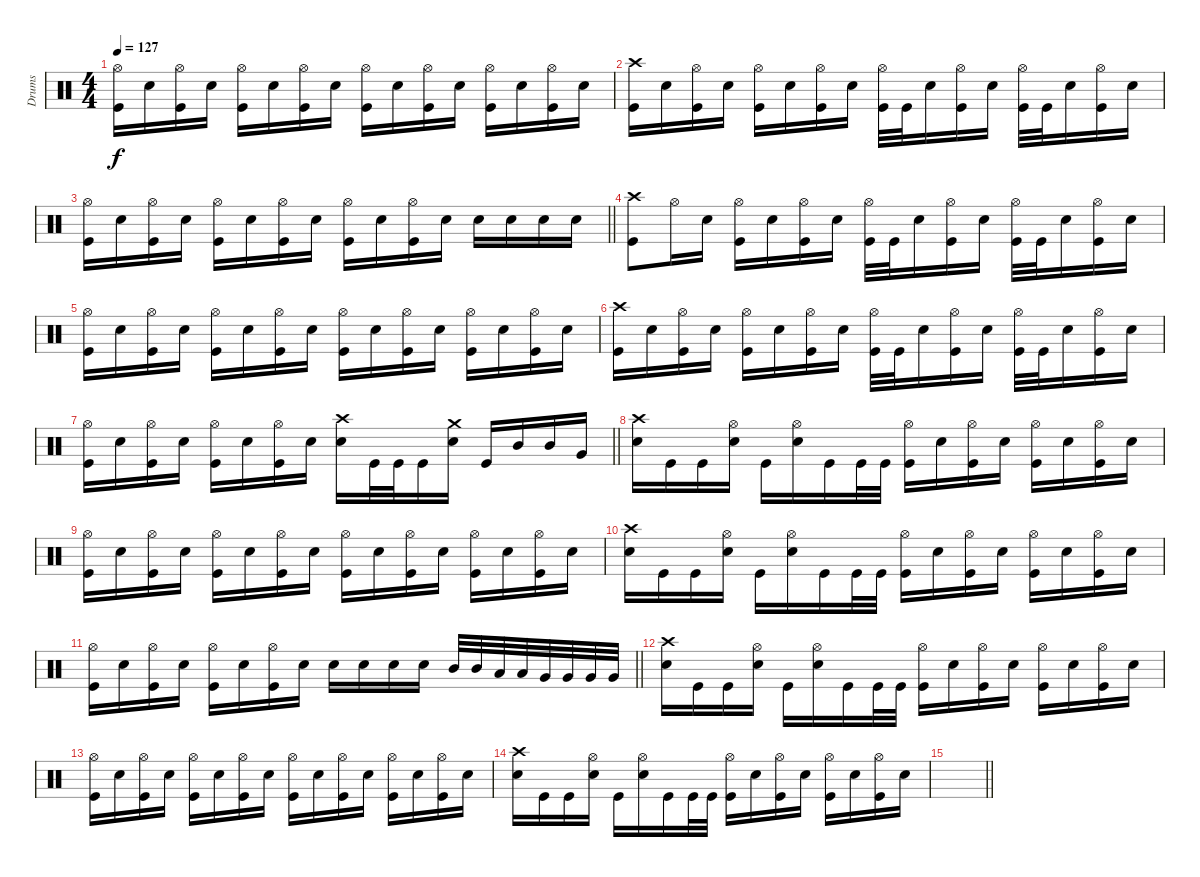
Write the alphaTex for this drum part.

\track ("Drums" "Drums") {instrument percussion}
\staff
\articulation defaults
\ts (4 4)
\tempo 127
\clef neutral
\ks c
("Hi-Hat (open)" "Kick (hit)").16{dy f} "Electric Snare (hit)".16 ("Hi-Hat (open)" "Kick (hit)").16 "Electric Snare (hit)".16 ("Hi-Hat (open)" "Kick (hit)").16 "Electric Snare (hit)".16 ("Hi-Hat (open)" "Kick (hit)").16 "Electric Snare (hit)".16 ("Hi-Hat (open)" "Kick (hit)").16 "Electric Snare (hit)".16 ("Hi-Hat (open)" "Kick (hit)").16 "Electric Snare (hit)".16 ("Hi-Hat (open)" "Kick (hit)").16 "Electric Snare (hit)".16 ("Hi-Hat (open)" "Kick (hit)").16 "Electric Snare (hit)".16 |
("Crash high (hit)" "Kick (hit)").16 "Electric Snare (hit)".16 ("Hi-Hat (open)" "Kick (hit)").16 "Electric Snare (hit)".16 ("Hi-Hat (open)" "Kick (hit)").16 "Electric Snare (hit)".16 ("Hi-Hat (open)" "Kick (hit)").16 "Electric Snare (hit)".16 ("Hi-Hat (open)" "Kick (hit)").32 "Kick (hit)".32 "Electric Snare (hit)".16 ("Hi-Hat (open)" "Kick (hit)").16 "Electric Snare (hit)".16 ("Hi-Hat (open)" "Kick (hit)").32 "Kick (hit)".32 "Electric Snare (hit)".16 ("Hi-Hat (open)" "Kick (hit)").16 "Electric Snare (hit)".16 |
\barLineRight lightlight
("Hi-Hat (open)" "Kick (hit)").16 "Electric Snare (hit)".16 ("Hi-Hat (open)" "Kick (hit)").16 "Electric Snare (hit)".16 ("Hi-Hat (open)" "Kick (hit)").16 "Electric Snare (hit)".16 ("Hi-Hat (open)" "Kick (hit)").16 "Electric Snare (hit)".16 ("Hi-Hat (open)" "Kick (hit)").16 "Electric Snare (hit)".16 ("Hi-Hat (open)" "Kick (hit)").16 "Electric Snare (hit)".16 "Electric Snare (hit)".16 "Electric Snare (hit)".16 "Electric Snare (hit)".16 "Electric Snare (hit)".16 |
("Crash high (hit)" "Kick (hit)").8 "Hi-Hat (open)".16 "Electric Snare (hit)".16 ("Hi-Hat (open)" "Kick (hit)").16 "Electric Snare (hit)".16 ("Hi-Hat (open)" "Kick (hit)").16 "Electric Snare (hit)".16 ("Hi-Hat (open)" "Kick (hit)").32 "Kick (hit)".32 "Electric Snare (hit)".16 ("Hi-Hat (open)" "Kick (hit)").16 "Electric Snare (hit)".16 ("Hi-Hat (open)" "Kick (hit)").32 "Kick (hit)".32 "Electric Snare (hit)".16 ("Hi-Hat (open)" "Kick (hit)").16 "Electric Snare (hit)".16 |
("Hi-Hat (open)" "Kick (hit)").16 "Electric Snare (hit)".16 ("Hi-Hat (open)" "Kick (hit)").16 "Electric Snare (hit)".16 ("Hi-Hat (open)" "Kick (hit)").16 "Electric Snare (hit)".16 ("Hi-Hat (open)" "Kick (hit)").16 "Electric Snare (hit)".16 ("Hi-Hat (open)" "Kick (hit)").16 "Electric Snare (hit)".16 ("Hi-Hat (open)" "Kick (hit)").16 "Electric Snare (hit)".16 ("Hi-Hat (open)" "Kick (hit)").16 "Electric Snare (hit)".16 ("Hi-Hat (open)" "Kick (hit)").16 "Electric Snare (hit)".16 |
("Crash high (hit)" "Kick (hit)").16 "Electric Snare (hit)".16 ("Hi-Hat (open)" "Kick (hit)").16 "Electric Snare (hit)".16 ("Hi-Hat (open)" "Kick (hit)").16 "Electric Snare (hit)".16 ("Hi-Hat (open)" "Kick (hit)").16 "Electric Snare (hit)".16 ("Hi-Hat (open)" "Kick (hit)").32 "Kick (hit)".32 "Electric Snare (hit)".16 ("Hi-Hat (open)" "Kick (hit)").16 "Electric Snare (hit)".16 ("Hi-Hat (open)" "Kick (hit)").32 "Kick (hit)".32 "Electric Snare (hit)".16 ("Hi-Hat (open)" "Kick (hit)").16 "Electric Snare (hit)".16 |
\barLineRight lightlight
("Hi-Hat (open)" "Kick (hit)").16 "Electric Snare (hit)".16 ("Hi-Hat (open)" "Kick (hit)").16 "Electric Snare (hit)".16 ("Hi-Hat (open)" "Kick (hit)").16 "Electric Snare (hit)".16 ("Hi-Hat (open)" "Kick (hit)").16 "Electric Snare (hit)".16 ("Crash high (hit)" "Electric Snare (hit)").16 "Kick (hit)".32 "Kick (hit)".32 "Kick (hit)".16 ("Crash medium (hit)" "Electric Snare (hit)").16 "Kick (hit)".16 "Mid Tom (hit)".16 "Mid Tom (hit)".16 "Very Low Tom (hit)".16 |
("Crash high (hit)" "Electric Snare (hit)").16 "Kick (hit)".16 "Kick (hit)".16 ("Hi-Hat (open)" "Electric Snare (hit)").16 "Kick (hit)".16 ("Hi-Hat (open)" "Electric Snare (hit)").16 "Kick (hit)".16 "Kick (hit)".32 "Kick (hit)".32 ("Hi-Hat (open)" "Kick (hit)").16 "Electric Snare (hit)".16 ("Hi-Hat (open)" "Kick (hit)").16 "Electric Snare (hit)".16 ("Hi-Hat (open)" "Kick (hit)").16 "Electric Snare (hit)".16 ("Hi-Hat (open)" "Kick (hit)").16 "Electric Snare (hit)".16 |
("Hi-Hat (open)" "Kick (hit)").16 "Electric Snare (hit)".16 ("Hi-Hat (open)" "Kick (hit)").16 "Electric Snare (hit)".16 ("Hi-Hat (open)" "Kick (hit)").16 "Electric Snare (hit)".16 ("Hi-Hat (open)" "Kick (hit)").16 "Electric Snare (hit)".16 ("Hi-Hat (open)" "Kick (hit)").16 "Electric Snare (hit)".16 ("Hi-Hat (open)" "Kick (hit)").16 "Electric Snare (hit)".16 ("Hi-Hat (open)" "Kick (hit)").16 "Electric Snare (hit)".16 ("Hi-Hat (open)" "Kick (hit)").16 "Electric Snare (hit)".16 |
("Crash high (hit)" "Electric Snare (hit)").16 "Kick (hit)".16 "Kick (hit)".16 ("Hi-Hat (open)" "Electric Snare (hit)").16 "Kick (hit)".16 ("Hi-Hat (open)" "Electric Snare (hit)").16 "Kick (hit)".16 "Kick (hit)".32 "Kick (hit)".32 ("Hi-Hat (open)" "Kick (hit)").16 "Electric Snare (hit)".16 ("Hi-Hat (open)" "Kick (hit)").16 "Electric Snare (hit)".16 ("Hi-Hat (open)" "Kick (hit)").16 "Electric Snare (hit)".16 ("Hi-Hat (open)" "Kick (hit)").16 "Electric Snare (hit)".16 |
\barLineRight lightlight
("Hi-Hat (open)" "Kick (hit)").16 "Electric Snare (hit)".16 ("Hi-Hat (open)" "Kick (hit)").16 "Electric Snare (hit)".16 ("Hi-Hat (open)" "Kick (hit)").16 "Electric Snare (hit)".16 ("Hi-Hat (open)" "Kick (hit)").16 "Electric Snare (hit)".16 "Electric Snare (hit)".16 "Electric Snare (hit)".16 "Electric Snare (hit)".16 "Electric Snare (hit)".16 "Mid Tom (hit)".32 "Mid Tom (hit)".32 "Low Tom (hit)".32 "Low Tom (hit)".32 "Very Low Tom (hit)".32 "Very Low Tom (hit)".32 "Very Low Tom (hit)".32 "Very Low Tom (hit)".32 |
("Crash high (hit)" "Electric Snare (hit)").16 "Kick (hit)".16 "Kick (hit)".16 ("Hi-Hat (open)" "Electric Snare (hit)").16 "Kick (hit)".16 ("Hi-Hat (open)" "Electric Snare (hit)").16 "Kick (hit)".16 "Kick (hit)".32 "Kick (hit)".32 ("Hi-Hat (open)" "Kick (hit)").16 "Electric Snare (hit)".16 ("Hi-Hat (open)" "Kick (hit)").16 "Electric Snare (hit)".16 ("Hi-Hat (open)" "Kick (hit)").16 "Electric Snare (hit)".16 ("Hi-Hat (open)" "Kick (hit)").16 "Electric Snare (hit)".16 |
("Hi-Hat (open)" "Kick (hit)").16 "Electric Snare (hit)".16 ("Hi-Hat (open)" "Kick (hit)").16 "Electric Snare (hit)".16 ("Hi-Hat (open)" "Kick (hit)").16 "Electric Snare (hit)".16 ("Hi-Hat (open)" "Kick (hit)").16 "Electric Snare (hit)".16 ("Hi-Hat (open)" "Kick (hit)").16 "Electric Snare (hit)".16 ("Hi-Hat (open)" "Kick (hit)").16 "Electric Snare (hit)".16 ("Hi-Hat (open)" "Kick (hit)").16 "Electric Snare (hit)".16 ("Hi-Hat (open)" "Kick (hit)").16 "Electric Snare (hit)".16 |
("Crash high (hit)" "Electric Snare (hit)").16 "Kick (hit)".16 "Kick (hit)".16 ("Hi-Hat (open)" "Electric Snare (hit)").16 "Kick (hit)".16 ("Hi-Hat (open)" "Electric Snare (hit)").16 "Kick (hit)".16 "Kick (hit)".32 "Kick (hit)".32 ("Hi-Hat (open)" "Kick (hit)").16 "Electric Snare (hit)".16 ("Hi-Hat (open)" "Kick (hit)").16 "Electric Snare (hit)".16 ("Hi-Hat (open)" "Kick (hit)").16 "Electric Snare (hit)".16 ("Hi-Hat (open)" "Kick (hit)").16 "Electric Snare (hit)".16 |
\barLineRight lightlight
